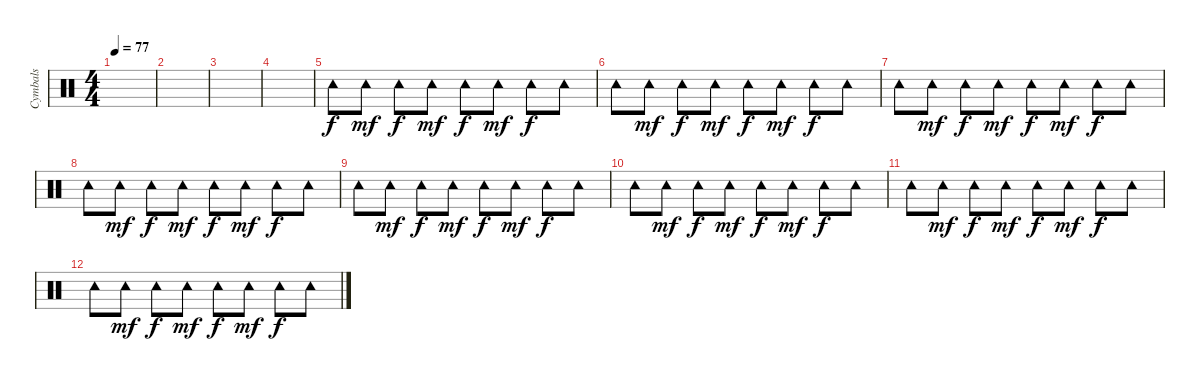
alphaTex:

\track ("Cymbals" "Cymbals") {instrument percussion}
\staff {score}
\articulation defaults
\ts (4 4)
\tempo 77
\clef neutral
\ks c
|
|
|
|
"Tambourine (hit)".8 "Tambourine (hit)".8{dy mf} "Tambourine (hit)".8{dy f} "Tambourine (hit)".8{dy mf} "Tambourine (hit)".8{dy f} "Tambourine (hit)".8{dy mf} "Tambourine (hit)".8{dy f} "Tambourine (hit)".8 |
"Tambourine (hit)".8 "Tambourine (hit)".8{dy mf} "Tambourine (hit)".8{dy f} "Tambourine (hit)".8{dy mf} "Tambourine (hit)".8{dy f} "Tambourine (hit)".8{dy mf} "Tambourine (hit)".8{dy f} "Tambourine (hit)".8 |
"Tambourine (hit)".8 "Tambourine (hit)".8{dy mf} "Tambourine (hit)".8{dy f} "Tambourine (hit)".8{dy mf} "Tambourine (hit)".8{dy f} "Tambourine (hit)".8{dy mf} "Tambourine (hit)".8{dy f} "Tambourine (hit)".8 |
"Tambourine (hit)".8 "Tambourine (hit)".8{dy mf} "Tambourine (hit)".8{dy f} "Tambourine (hit)".8{dy mf} "Tambourine (hit)".8{dy f} "Tambourine (hit)".8{dy mf} "Tambourine (hit)".8{dy f} "Tambourine (hit)".8 |
"Tambourine (hit)".8 "Tambourine (hit)".8{dy mf} "Tambourine (hit)".8{dy f} "Tambourine (hit)".8{dy mf} "Tambourine (hit)".8{dy f} "Tambourine (hit)".8{dy mf} "Tambourine (hit)".8{dy f} "Tambourine (hit)".8 |
"Tambourine (hit)".8 "Tambourine (hit)".8{dy mf} "Tambourine (hit)".8{dy f} "Tambourine (hit)".8{dy mf} "Tambourine (hit)".8{dy f} "Tambourine (hit)".8{dy mf} "Tambourine (hit)".8{dy f} "Tambourine (hit)".8 |
"Tambourine (hit)".8 "Tambourine (hit)".8{dy mf} "Tambourine (hit)".8{dy f} "Tambourine (hit)".8{dy mf} "Tambourine (hit)".8{dy f} "Tambourine (hit)".8{dy mf} "Tambourine (hit)".8{dy f} "Tambourine (hit)".8 |
"Tambourine (hit)".8 "Tambourine (hit)".8{dy mf} "Tambourine (hit)".8{dy f} "Tambourine (hit)".8{dy mf} "Tambourine (hit)".8{dy f} "Tambourine (hit)".8{dy mf} "Tambourine (hit)".8{dy f} "Tambourine (hit)".8
